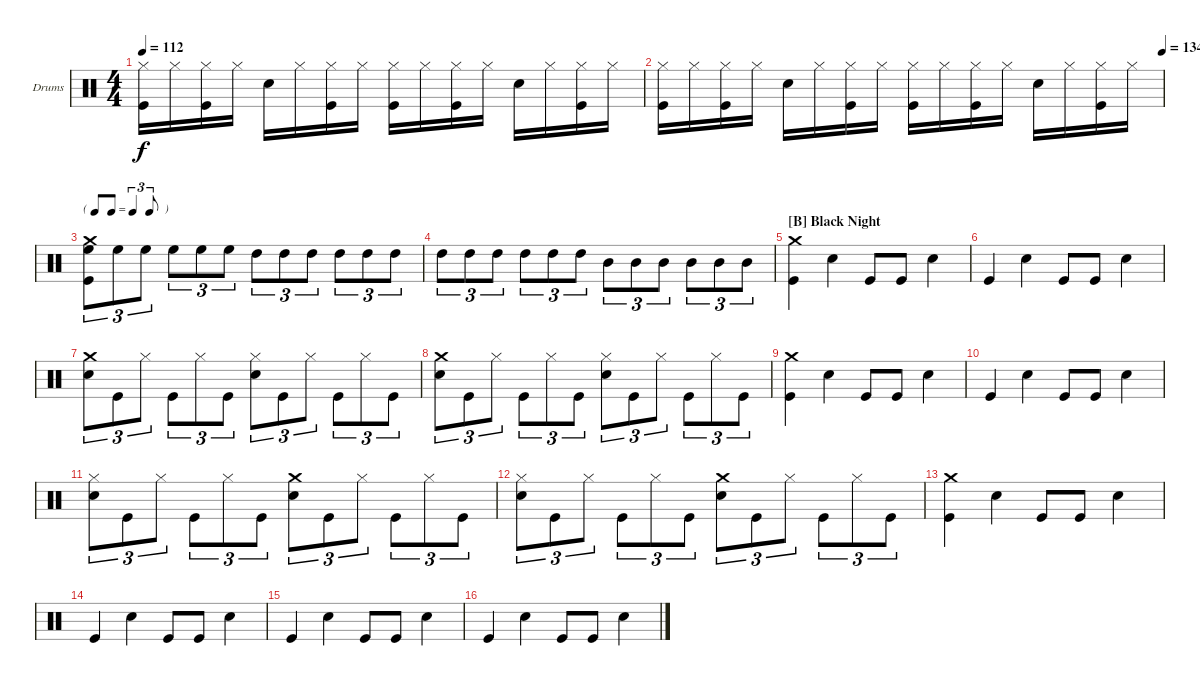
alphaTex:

\bracketExtendMode groupsimilarinstruments
\firstSystemTrackNameOrientation horizontal
\otherSystemsTrackNameOrientation horizontal
\track ("Drumkit" "Drums") {instrument percussion}
\staff {score}
\articulation defaults
\ts (4 4)
\tempo 112
\clef neutral
\ks c
("Hi-Hat (closed)" "Kick (hit)").16{dy f} "Hi-Hat (closed)".16 ("Hi-Hat (closed)" "Kick (hit)").16 "Hi-Hat (closed)".16 "Snare (hit) 2".16 "Hi-Hat (closed)".16 ("Hi-Hat (closed)" "Kick (hit)").16 "Hi-Hat (closed)".16 ("Hi-Hat (closed)" "Kick (hit)").16 "Hi-Hat (closed)".16 ("Hi-Hat (closed)" "Kick (hit)").16 "Hi-Hat (closed)".16 "Snare (hit) 2".16 "Hi-Hat (closed)".16 ("Hi-Hat (closed)" "Kick (hit)").16 "Hi-Hat (closed)".16 |
\tempo (134 1)
("Hi-Hat (closed)" "Kick (hit)").16 "Hi-Hat (closed)".16 ("Hi-Hat (closed)" "Kick (hit)").16 "Hi-Hat (closed)".16 "Snare (hit) 2".16 "Hi-Hat (closed)".16 ("Hi-Hat (closed)" "Kick (hit)").16 "Hi-Hat (closed)".16 ("Hi-Hat (closed)" "Kick (hit)").16 "Hi-Hat (closed)".16 ("Hi-Hat (closed)" "Kick (hit)").16 "Hi-Hat (closed)".16 "Snare (hit) 2".16 "Hi-Hat (closed)".16 ("Hi-Hat (closed)" "Kick (hit)").16 "Hi-Hat (closed)".16 |
\tf triplet8th
("High Floor Tom (hit)" "Crash medium (hit)" "Kick (hit)").8{tu (3 2)} "High Floor Tom (hit)".8{tu (3 2)} "High Floor Tom (hit)".8{tu (3 2)} "High Floor Tom (hit)".8{tu (3 2)} "High Floor Tom (hit)".8{tu (3 2)} "High Floor Tom (hit)".8{tu (3 2)} "High Tom (hit)".8{tu (3 2)} "High Tom (hit)".8{tu (3 2)} "High Tom (hit)".8{tu (3 2)} "High Tom (hit)".8{tu (3 2)} "High Tom (hit)".8{tu (3 2)} "High Tom (hit)".8{tu (3 2)} |
"High Tom (hit)".8{tu (3 2)} "High Tom (hit)".8{tu (3 2)} "High Tom (hit)".8{tu (3 2)} "High Tom (hit)".8{tu (3 2)} "High Tom (hit)".8{tu (3 2)} "High Tom (hit)".8{tu (3 2)} "Mid Tom (hit)".8{tu (3 2)} "Mid Tom (hit)".8{tu (3 2)} "Mid Tom (hit)".8{tu (3 2)} "Mid Tom (hit)".8{tu (3 2)} "Mid Tom (hit)".8{tu (3 2)} "Mid Tom (hit)".8{tu (3 2)} |
\section ("B" "Black Night")
("Kick (hit)" "Crash medium (hit)").4 "Snare (hit) 2".4 "Kick (hit)".8 "Kick (hit)".8 "Snare (hit) 2".4 |
"Kick (hit)".4 "Snare (hit) 2".4 "Kick (hit)".8 "Kick (hit)".8 "Snare (hit) 2".4 |
("Snare (hit) 2" "Crash medium (hit)").8{tu (3 2)} "Kick (hit)".8{tu (3 2)} "Hi-Hat (closed)".8{tu (3 2)} "Kick (hit)".8{tu (3 2)} "Hi-Hat (closed)".8{tu (3 2)} "Kick (hit)".8{tu (3 2)} ("Snare (hit) 2" "Hi-Hat (closed)").8{tu (3 2)} "Kick (hit)".8{tu (3 2)} "Hi-Hat (closed)".8{tu (3 2)} "Kick (hit)".8{tu (3 2)} "Hi-Hat (closed)".8{tu (3 2)} "Kick (hit)".8{tu (3 2)} |
("Snare (hit) 2" "Crash medium (hit)").8{tu (3 2)} "Kick (hit)".8{tu (3 2)} "Hi-Hat (closed)".8{tu (3 2)} "Kick (hit)".8{tu (3 2)} "Hi-Hat (closed)".8{tu (3 2)} "Kick (hit)".8{tu (3 2)} ("Snare (hit) 2" "Hi-Hat (closed)").8{tu (3 2)} "Kick (hit)".8{tu (3 2)} "Hi-Hat (closed)".8{tu (3 2)} "Kick (hit)".8{tu (3 2)} "Hi-Hat (closed)".8{tu (3 2)} "Kick (hit)".8{tu (3 2)} |
("Kick (hit)" "Crash medium (hit)").4 "Snare (hit) 2".4 "Kick (hit)".8 "Kick (hit)".8 "Snare (hit) 2".4 |
"Kick (hit)".4 "Snare (hit) 2".4 "Kick (hit)".8 "Kick (hit)".8 "Snare (hit) 2".4 |
("Snare (hit) 2" "Hi-Hat (closed)").8{tu (3 2)} "Kick (hit)".8{tu (3 2)} "Hi-Hat (closed)".8{tu (3 2)} "Kick (hit)".8{tu (3 2)} "Hi-Hat (closed)".8{tu (3 2)} "Kick (hit)".8{tu (3 2)} ("Crash medium (hit)" "Snare (hit) 2").8{tu (3 2)} "Kick (hit)".8{tu (3 2)} "Hi-Hat (closed)".8{tu (3 2)} "Kick (hit)".8{tu (3 2)} "Hi-Hat (closed)".8{tu (3 2)} "Kick (hit)".8{tu (3 2)} |
("Snare (hit) 2" "Hi-Hat (closed)").8{tu (3 2)} "Kick (hit)".8{tu (3 2)} "Hi-Hat (closed)".8{tu (3 2)} "Kick (hit)".8{tu (3 2)} "Hi-Hat (closed)".8{tu (3 2)} "Kick (hit)".8{tu (3 2)} ("Crash medium (hit)" "Snare (hit) 2").8{tu (3 2)} "Kick (hit)".8{tu (3 2)} "Hi-Hat (closed)".8{tu (3 2)} "Kick (hit)".8{tu (3 2)} "Hi-Hat (closed)".8{tu (3 2)} "Kick (hit)".8{tu (3 2)} |
("Kick (hit)" "Crash medium (hit)").4 "Snare (hit) 2".4 "Kick (hit)".8 "Kick (hit)".8 "Snare (hit) 2".4 |
"Kick (hit)".4 "Snare (hit) 2".4 "Kick (hit)".8 "Kick (hit)".8 "Snare (hit) 2".4 |
"Kick (hit)".4 "Snare (hit) 2".4 "Kick (hit)".8 "Kick (hit)".8 "Snare (hit) 2".4 |
"Kick (hit)".4 "Snare (hit) 2".4 "Kick (hit)".8 "Kick (hit)".8 "Snare (hit) 2".4
